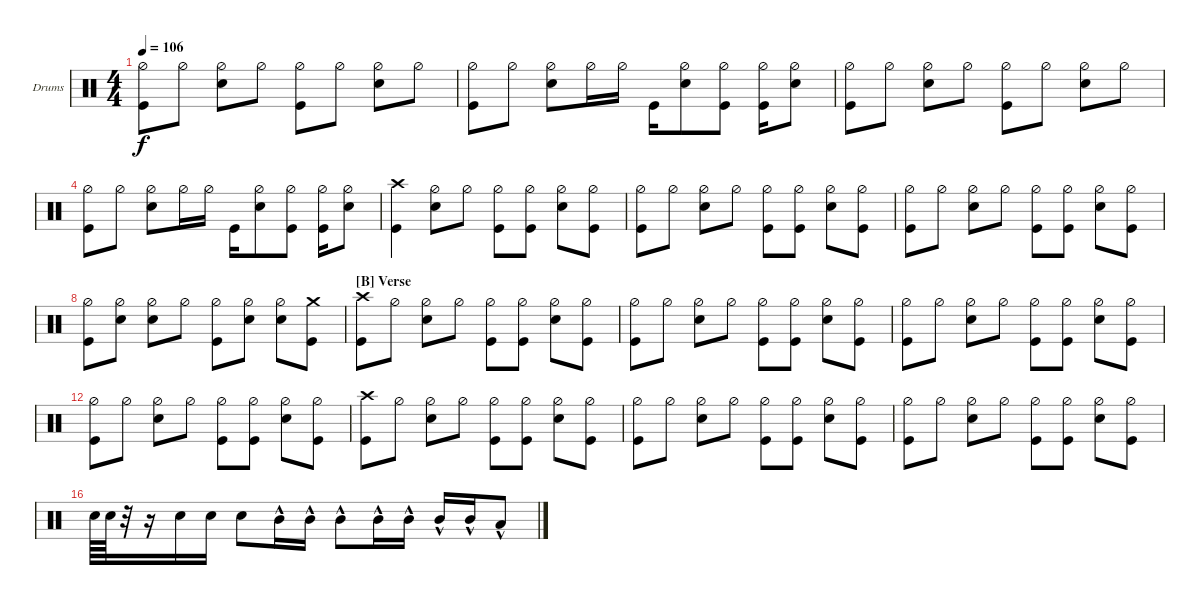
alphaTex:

\bracketExtendMode nobrackets
\firstSystemTrackNameOrientation horizontal
\otherSystemsTrackNameOrientation horizontal
\defaultBarNumberDisplay FirstOfSystem
\track ("Herman Rarebell" "Drums") {instrument percussion}
\staff {score}
\articulation defaults
\ts (4 4)
\tempo 106
\clef neutral
\scale
0.493521
\ks c
("Kick (hit)" "Hi-Hat (half)").8{dy f} "Hi-Hat (half)".8 ("Snare (hit) 2" "Hi-Hat (half)").8 "Hi-Hat (half)".8 ("Kick (hit)" "Hi-Hat (half)").8 "Hi-Hat (half)".8 ("Snare (hit) 2" "Hi-Hat (half)").8 "Hi-Hat (half)".8 |
("Kick (hit)" "Hi-Hat (half)").8 "Hi-Hat (half)".8 ("Snare (hit) 2" "Hi-Hat (half)").8 "Hi-Hat (half)".16 "Hi-Hat (half)".16 "Kick (hit)".16 ("Snare (hit) 2" "Hi-Hat (half)").8 ("Kick (hit)" "Hi-Hat (half)").8 ("Kick (hit)" "Hi-Hat (half)").16 ("Snare (hit) 2" "Hi-Hat (half)").8 |
("Kick (hit)" "Hi-Hat (half)").8 "Hi-Hat (half)".8 ("Snare (hit) 2" "Hi-Hat (half)").8 "Hi-Hat (half)".8 ("Kick (hit)" "Hi-Hat (half)").8 "Hi-Hat (half)".8 ("Snare (hit) 2" "Hi-Hat (half)").8 "Hi-Hat (half)".8 |
("Kick (hit)" "Hi-Hat (half)").8 "Hi-Hat (half)".8 ("Snare (hit) 2" "Hi-Hat (half)").8 "Hi-Hat (half)".16 "Hi-Hat (half)".16 "Kick (hit)".16 ("Snare (hit) 2" "Hi-Hat (half)").8 ("Kick (hit)" "Hi-Hat (half)").8 ("Kick (hit)" "Hi-Hat (half)").16 ("Snare (hit) 2" "Hi-Hat (half)").8 |
("Kick (hit)" "Crash high (hit)").4 ("Snare (hit) 2" "Hi-Hat (half)").8 "Hi-Hat (half)".8 ("Kick (hit)" "Hi-Hat (half)").8 ("Hi-Hat (half)" "Kick (hit)").8 ("Snare (hit) 2" "Hi-Hat (half)").8 ("Hi-Hat (half)" "Kick (hit)").8 |
("Kick (hit)" "Hi-Hat (half)").8 "Hi-Hat (half)".8 ("Snare (hit) 2" "Hi-Hat (half)").8 "Hi-Hat (half)".8 ("Kick (hit)" "Hi-Hat (half)").8 ("Hi-Hat (half)" "Kick (hit)").8 ("Snare (hit) 2" "Hi-Hat (half)").8 ("Hi-Hat (half)" "Kick (hit)").8 |
("Kick (hit)" "Hi-Hat (half)").8 "Hi-Hat (half)".8 ("Snare (hit) 2" "Hi-Hat (half)").8 "Hi-Hat (half)".8 ("Kick (hit)" "Hi-Hat (half)").8 ("Hi-Hat (half)" "Kick (hit)").8 ("Snare (hit) 2" "Hi-Hat (half)").8 ("Hi-Hat (half)" "Kick (hit)").8 |
("Kick (hit)" "Hi-Hat (half)").8 ("Hi-Hat (half)" "Snare (hit) 2").8 ("Snare (hit) 2" "Hi-Hat (half)").8 "Hi-Hat (half)".8 ("Kick (hit)" "Hi-Hat (half)").8 ("Hi-Hat (half)" "Snare (hit) 2").8 ("Snare (hit) 2" "Hi-Hat (half)").8 ("Kick (hit)" "Crash medium (hit)").8 |
\section ("B" "Verse")
("Kick (hit)" "Crash high (hit)").8 "Hi-Hat (half)".8 ("Snare (hit) 2" "Hi-Hat (half)").8 "Hi-Hat (half)".8 ("Kick (hit)" "Hi-Hat (half)").8 ("Hi-Hat (half)" "Kick (hit)").8 ("Snare (hit) 2" "Hi-Hat (half)").8 ("Hi-Hat (half)" "Kick (hit)").8 |
("Kick (hit)" "Hi-Hat (half)").8 "Hi-Hat (half)".8 ("Snare (hit) 2" "Hi-Hat (half)").8 "Hi-Hat (half)".8 ("Kick (hit)" "Hi-Hat (half)").8 ("Hi-Hat (half)" "Kick (hit)").8 ("Snare (hit) 2" "Hi-Hat (half)").8 ("Hi-Hat (half)" "Kick (hit)").8 |
("Kick (hit)" "Hi-Hat (half)").8 "Hi-Hat (half)".8 ("Snare (hit) 2" "Hi-Hat (half)").8 "Hi-Hat (half)".8 ("Kick (hit)" "Hi-Hat (half)").8 ("Hi-Hat (half)" "Kick (hit)").8 ("Snare (hit) 2" "Hi-Hat (half)").8 ("Hi-Hat (half)" "Kick (hit)").8 |
("Kick (hit)" "Hi-Hat (half)").8 "Hi-Hat (half)".8 ("Snare (hit) 2" "Hi-Hat (half)").8 "Hi-Hat (half)".8 ("Kick (hit)" "Hi-Hat (half)").8 ("Hi-Hat (half)" "Kick (hit)").8 ("Snare (hit) 2" "Hi-Hat (half)").8 ("Hi-Hat (half)" "Kick (hit)").8 |
("Kick (hit)" "Crash high (hit)").8 "Hi-Hat (half)".8 ("Snare (hit) 2" "Hi-Hat (half)").8 "Hi-Hat (half)".8 ("Kick (hit)" "Hi-Hat (half)").8 ("Hi-Hat (half)" "Kick (hit)").8 ("Snare (hit) 2" "Hi-Hat (half)").8 ("Hi-Hat (half)" "Kick (hit)").8 |
("Kick (hit)" "Hi-Hat (half)").8 "Hi-Hat (half)".8 ("Snare (hit) 2" "Hi-Hat (half)").8 "Hi-Hat (half)".8 ("Kick (hit)" "Hi-Hat (half)").8 ("Hi-Hat (half)" "Kick (hit)").8 ("Snare (hit) 2" "Hi-Hat (half)").8 ("Hi-Hat (half)" "Kick (hit)").8 |
("Kick (hit)" "Hi-Hat (half)").8 "Hi-Hat (half)".8 ("Snare (hit) 2" "Hi-Hat (half)").8 "Hi-Hat (half)".8 ("Kick (hit)" "Hi-Hat (half)").8 ("Hi-Hat (half)" "Kick (hit)").8 ("Snare (hit) 2" "Hi-Hat (half)").8 ("Hi-Hat (half)" "Kick (hit)").8 |
\scale
0.493548 "Snare (hit) 2".64 "Snare (hit) 2".64 r.32 r.16 "Snare (hit) 2".16 "Snare (hit) 2".16 "Snare (hit) 2".8 "Mid Tom (hit)"{hac}.16 "Mid Tom (hit)"{hac}.16 "Mid Tom (hit)"{hac}.8 "Mid Tom (hit)"{hac}.16 "Mid Tom (hit)"{hac}.16 "Mid Tom (hit)"{hac}.16 "Mid Tom (hit)"{hac}.16 "Low Tom (hit)"{hac}.8
